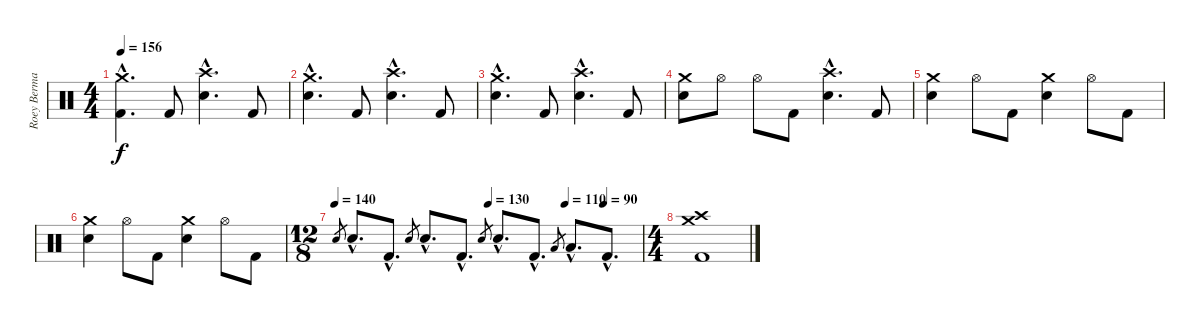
\track ("Roey Berman" "Roey Berma") {instrument percussion}
\staff {score}
\articulation defaults
\ts (4 4)
\tempo 156
\clef neutral
\ks c
("Crash medium (hit)"{hac} "Kick (hit) 2"{hac}).4{d dy f} "Kick (hit) 2".8 ("Crash high (hit)"{hac} "Electric Snare (hit)"{hac}).4{d} "Kick (hit) 2".8 |
("Crash medium (hit)"{hac} "Electric Snare (hit)"{hac}).4{d} "Kick (hit) 2".8 ("Crash high (hit)"{hac} "Electric Snare (hit)"{hac}).4{d} "Kick (hit) 2".8 |
("Crash medium (hit)"{hac} "Electric Snare (hit)"{hac}).4{d} "Kick (hit) 2".8 ("Crash high (hit)"{hac} "Electric Snare (hit)"{hac}).4{d} "Kick (hit) 2".8 |
("Crash medium (hit)" "Electric Snare (hit)").8 "Hi-Hat (open)".8 "Hi-Hat (open)".8 "Kick (hit) 2".8 ("Crash high (hit)"{hac} "Electric Snare (hit)"{hac}).4{d} "Kick (hit) 2".8 |
("Crash medium (hit)" "Electric Snare (hit)").4 "Hi-Hat (open)".8 "Kick (hit) 2".8 ("Crash medium (hit)" "Electric Snare (hit)").4 "Hi-Hat (open)".8 "Kick (hit) 2".8 |
("Crash medium (hit)" "Electric Snare (hit)").4 "Hi-Hat (open)".8 "Kick (hit) 2".8 ("Crash medium (hit)" "Electric Snare (hit)").4 "Hi-Hat (open)".8 "Kick (hit) 2".8 |
\ts (12 8)
\tempo 140
\tempo (130 0.5)
\tempo (110 0.75)
\tempo (90 0.875)
"Electric Snare (hit)".8{gr} "Electric Snare (hit)"{hac}.8{d} "Kick (hit) 2"{hac}.8{d} "Electric Snare (hit)".8{gr} "Electric Snare (hit)"{hac}.8{d} "Kick (hit) 2"{hac}.8{d} "Electric Snare (hit)".8{gr} "Electric Snare (hit)"{hac}.8{d} "Kick (hit) 2"{hac}.8{d} "Low Tom (hit)".8{gr} "Low Tom (hit)"{hac}.8{d} "Kick (hit) 2"{hac}.8{d} |
\ts (4 4)
("Crash high (hit)" "Crash medium (hit)" "Kick (hit) 2").1
